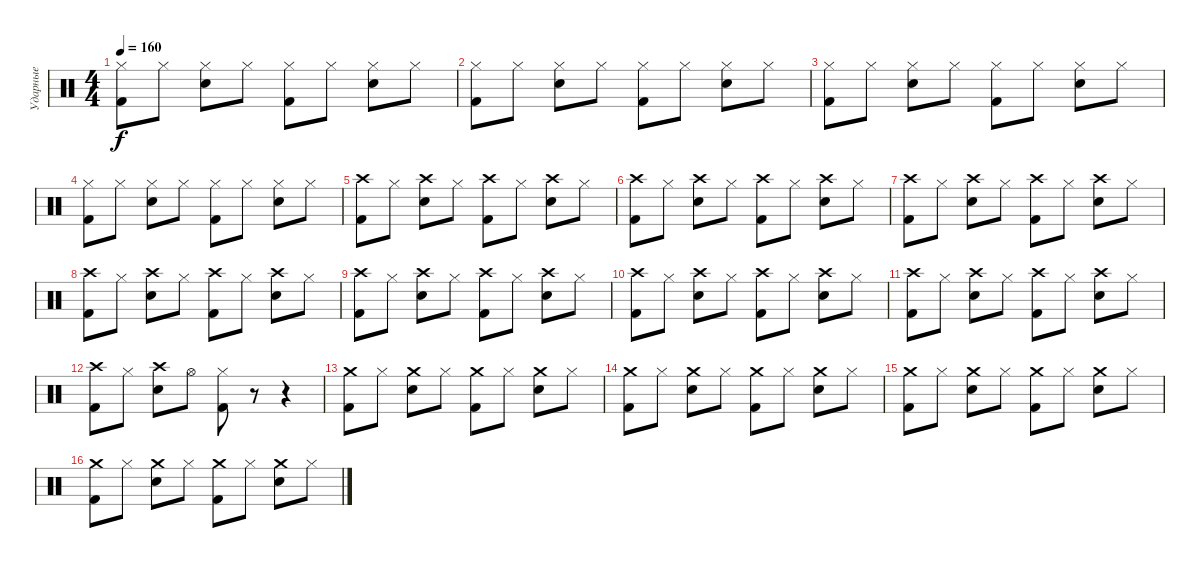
\track ("Ударные" "Ударные") {instrument percussion}
\staff {score}
\articulation defaults
\ts (4 4)
\tempo 160
\clef neutral
\ks c
("Hi-Hat (closed)" "Kick (hit) 2").8{dy f} "Hi-Hat (closed)".8 ("Hi-Hat (closed)" "Snare (hit) 2").8 "Hi-Hat (closed)".8 ("Hi-Hat (closed)" "Kick (hit) 2").8 "Hi-Hat (closed)".8 ("Hi-Hat (closed)" "Snare (hit) 2").8 "Hi-Hat (closed)".8 |
("Hi-Hat (closed)" "Kick (hit) 2").8 "Hi-Hat (closed)".8 ("Hi-Hat (closed)" "Snare (hit) 2").8 "Hi-Hat (closed)".8 ("Hi-Hat (closed)" "Kick (hit) 2").8 "Hi-Hat (closed)".8 ("Hi-Hat (closed)" "Snare (hit) 2").8 "Hi-Hat (closed)".8 |
("Hi-Hat (closed)" "Kick (hit) 2").8 "Hi-Hat (closed)".8 ("Hi-Hat (closed)" "Snare (hit) 2").8 "Hi-Hat (closed)".8 ("Hi-Hat (closed)" "Kick (hit) 2").8 "Hi-Hat (closed)".8 ("Hi-Hat (closed)" "Snare (hit) 2").8 "Hi-Hat (closed)".8 |
("Hi-Hat (closed)" "Kick (hit) 2").8 "Hi-Hat (closed)".8 ("Hi-Hat (closed)" "Snare (hit) 2").8 "Hi-Hat (closed)".8 ("Hi-Hat (closed)" "Kick (hit) 2").8 "Hi-Hat (closed)".8 ("Hi-Hat (closed)" "Snare (hit) 2").8 "Hi-Hat (closed)".8 |
("Crash high (hit)" "Kick (hit) 2").8 "Hi-Hat (closed)".8 ("Crash high (hit)" "Snare (hit) 2").8 "Hi-Hat (closed)".8 ("Crash high (hit)" "Kick (hit) 2").8 "Hi-Hat (closed)".8 ("Crash high (hit)" "Snare (hit) 2").8 "Hi-Hat (closed)".8 |
("Crash high (hit)" "Kick (hit) 2").8 "Hi-Hat (closed)".8 ("Crash high (hit)" "Snare (hit) 2").8 "Hi-Hat (closed)".8 ("Crash high (hit)" "Kick (hit) 2").8 "Hi-Hat (closed)".8 ("Crash high (hit)" "Snare (hit) 2").8 "Hi-Hat (closed)".8 |
("Crash high (hit)" "Kick (hit) 2").8 "Hi-Hat (closed)".8 ("Crash high (hit)" "Snare (hit) 2").8 "Hi-Hat (closed)".8 ("Crash high (hit)" "Kick (hit) 2").8 "Hi-Hat (closed)".8 ("Crash high (hit)" "Snare (hit) 2").8 "Hi-Hat (closed)".8 |
("Crash high (hit)" "Kick (hit) 2").8 "Hi-Hat (closed)".8 ("Crash high (hit)" "Snare (hit) 2").8 "Hi-Hat (closed)".8 ("Crash high (hit)" "Kick (hit) 2").8 "Hi-Hat (closed)".8 ("Crash high (hit)" "Snare (hit) 2").8 "Hi-Hat (closed)".8 |
("Crash high (hit)" "Kick (hit) 2").8 "Hi-Hat (closed)".8 ("Crash high (hit)" "Snare (hit) 2").8 "Hi-Hat (closed)".8 ("Crash high (hit)" "Kick (hit) 2").8 "Hi-Hat (closed)".8 ("Crash high (hit)" "Snare (hit) 2").8 "Hi-Hat (closed)".8 |
("Crash high (hit)" "Kick (hit) 2").8 "Hi-Hat (closed)".8 ("Crash high (hit)" "Snare (hit) 2").8 "Hi-Hat (closed)".8 ("Crash high (hit)" "Kick (hit) 2").8 "Hi-Hat (closed)".8 ("Crash high (hit)" "Snare (hit) 2").8 "Hi-Hat (closed)".8 |
("Crash high (hit)" "Kick (hit) 2").8 "Hi-Hat (closed)".8 ("Crash high (hit)" "Snare (hit) 2").8 "Hi-Hat (closed)".8 ("Crash high (hit)" "Kick (hit) 2").8 "Hi-Hat (closed)".8 ("Crash high (hit)" "Snare (hit) 2").8 "Hi-Hat (closed)".8 |
("Crash high (hit)" "Kick (hit) 2").8 "Hi-Hat (closed)".8 ("Crash high (hit)" "Snare (hit) 2").8 "Hi-Hat (open)".8 ("Hi-Hat (closed)" "Kick (hit) 2").8 r.8 r.4 |
("Crash medium (hit)" "Kick (hit) 2").8 "Hi-Hat (closed)".8 ("Crash medium (hit)" "Snare (hit) 2").8 "Hi-Hat (closed)".8 ("Crash medium (hit)" "Kick (hit) 2").8 "Hi-Hat (closed)".8 ("Crash medium (hit)" "Snare (hit) 2").8 "Hi-Hat (closed)".8 |
("Crash medium (hit)" "Kick (hit) 2").8 "Hi-Hat (closed)".8 ("Crash medium (hit)" "Snare (hit) 2").8 "Hi-Hat (closed)".8 ("Crash medium (hit)" "Kick (hit) 2").8 "Hi-Hat (closed)".8 ("Crash medium (hit)" "Snare (hit) 2").8 "Hi-Hat (closed)".8 |
("Crash medium (hit)" "Kick (hit) 2").8 "Hi-Hat (closed)".8 ("Crash medium (hit)" "Snare (hit) 2").8 "Hi-Hat (closed)".8 ("Crash medium (hit)" "Kick (hit) 2").8 "Hi-Hat (closed)".8 ("Crash medium (hit)" "Snare (hit) 2").8 "Hi-Hat (closed)".8 |
("Crash medium (hit)" "Kick (hit) 2").8 "Hi-Hat (closed)".8 ("Crash medium (hit)" "Snare (hit) 2").8 "Hi-Hat (closed)".8 ("Crash medium (hit)" "Kick (hit) 2").8 "Hi-Hat (closed)".8 ("Crash medium (hit)" "Snare (hit) 2").8 "Hi-Hat (closed)".8
